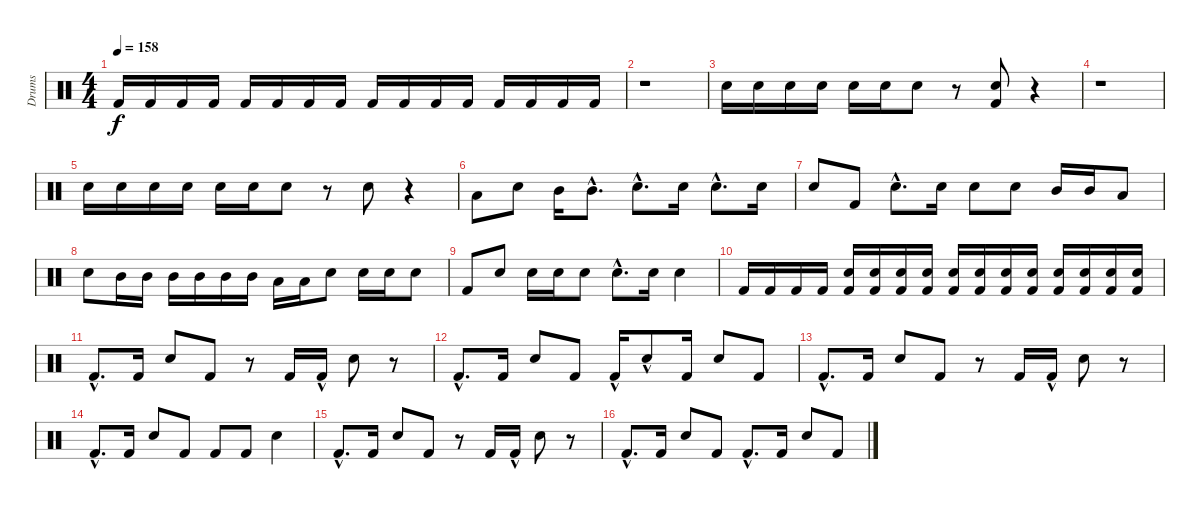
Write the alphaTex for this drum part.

\track ("Drums" "Drums") {instrument percussion}
\staff {score}
\articulation defaults
\ts (4 4)
\tempo 158
\clef neutral
\ks c "Kick (hit) 2".16{dy f} "Kick (hit) 2".16 "Kick (hit) 2".16 "Kick (hit) 2".16 "Kick (hit) 2".16 "Kick (hit) 2".16 "Kick (hit) 2".16 "Kick (hit) 2".16 "Kick (hit) 2".16 "Kick (hit) 2".16 "Kick (hit) 2".16 "Kick (hit) 2".16 "Kick (hit) 2".16 "Kick (hit) 2".16 "Kick (hit) 2".16 "Kick (hit) 2".16
|
r.1 |
"Snare (hit) 2".16 "Snare (hit) 2".16 "Snare (hit) 2".16 "Snare (hit) 2".16 "Snare (hit) 2".16 "Snare (hit) 2".16 "Snare (hit) 2".8 r.8 ("Kick (hit) 2" "Snare (hit) 2").8 r.4 |
r.1 |
"Snare (hit) 2".16 "Snare (hit) 2".16 "Snare (hit) 2".16 "Snare (hit) 2".16 "Snare (hit) 2".16 "Snare (hit) 2".16 "Snare (hit) 2".8 r.8 "Snare (hit) 2".8 r.4 |
"Low Tom (hit)".8 "Snare (hit) 2".8 "Mid Tom (hit)".16 "Mid Tom (hit)"{hac}.8{d} "Snare (hit) 2"{hac}.8{d} "Snare (hit) 2".16 "Snare (hit) 2"{hac}.8{d} "Snare (hit) 2".16 |
"Snare (hit) 2".8 "Kick (hit) 2".8 "Snare (hit) 2"{hac}.8{d} "Snare (hit) 2".16 "Snare (hit) 2".8 "Snare (hit) 2".8 "Mid Tom (hit)".16 "Mid Tom (hit)".16 "Low Tom (hit)".8 |
"Snare (hit) 2".8 "Mid Tom (hit)".16 "Mid Tom (hit)".16 "Mid Tom (hit)".16 "Mid Tom (hit)".16 "Mid Tom (hit)".16 "Mid Tom (hit)".16 "Low Tom (hit)".16 "Low Tom (hit)".16 "Snare (hit) 2".8 "Snare (hit) 2".16 "Snare (hit) 2".16 "Snare (hit) 2".8 |
"Kick (hit) 2".8 "Snare (hit) 2".8 "Snare (hit) 2".16 "Snare (hit) 2".16 "Snare (hit) 2".8 "Snare (hit) 2"{hac}.8{d} "Snare (hit) 2".16 "Snare (hit) 2".4 |
"Kick (hit) 2".16 "Kick (hit) 2".16 "Kick (hit) 2".16 "Kick (hit) 2".16 ("Snare (hit) 2" "Kick (hit) 2").16 ("Snare (hit) 2" "Kick (hit) 2").16 ("Snare (hit) 2" "Kick (hit) 2").16 ("Snare (hit) 2" "Kick (hit) 2").16 ("Snare (hit) 2" "Kick (hit) 2").16 ("Snare (hit) 2" "Kick (hit) 2").16 ("Snare (hit) 2" "Kick (hit) 2").16 ("Snare (hit) 2" "Kick (hit) 2").16 ("Snare (hit) 2" "Kick (hit) 2").16 ("Snare (hit) 2" "Kick (hit) 2").16 ("Snare (hit) 2" "Kick (hit) 2").16 ("Snare (hit) 2" "Kick (hit) 2").16 |
"Kick (hit) 2"{hac}.8{d} "Kick (hit) 2".16 "Snare (hit) 2".8 "Kick (hit) 2".8 r.8 "Kick (hit) 2".16 "Kick (hit) 2"{hac}.16 "Snare (hit) 2".8 r.8 |
"Kick (hit) 2"{hac}.8{d} "Kick (hit) 2".16 "Snare (hit) 2".8 "Kick (hit) 2".8 "Kick (hit) 2"{hac}.16 "Snare (hit) 2"{hac}.8 "Kick (hit) 2".16 "Snare (hit) 2".8 "Kick (hit) 2".8 |
"Kick (hit) 2"{hac}.8{d} "Kick (hit) 2".16 "Snare (hit) 2".8 "Kick (hit) 2".8 r.8 "Kick (hit) 2".16 "Kick (hit) 2"{hac}.16 "Snare (hit) 2".8 r.8 |
"Kick (hit) 2"{hac}.8{d} "Kick (hit) 2".16 "Snare (hit) 2".8 "Kick (hit) 2".8 "Kick (hit) 2".8 "Kick (hit) 2".8 "Snare (hit) 2".4 |
"Kick (hit) 2"{hac}.8{d} "Kick (hit) 2".16 "Snare (hit) 2".8 "Kick (hit) 2".8 r.8 "Kick (hit) 2".16 "Kick (hit) 2"{hac}.16 "Snare (hit) 2".8 r.8 |
"Kick (hit) 2"{hac}.8{d} "Kick (hit) 2".16 "Snare (hit) 2".8 "Kick (hit) 2".8 "Kick (hit) 2"{hac}.8{d} "Kick (hit) 2".16 "Snare (hit) 2".8 "Kick (hit) 2".8
